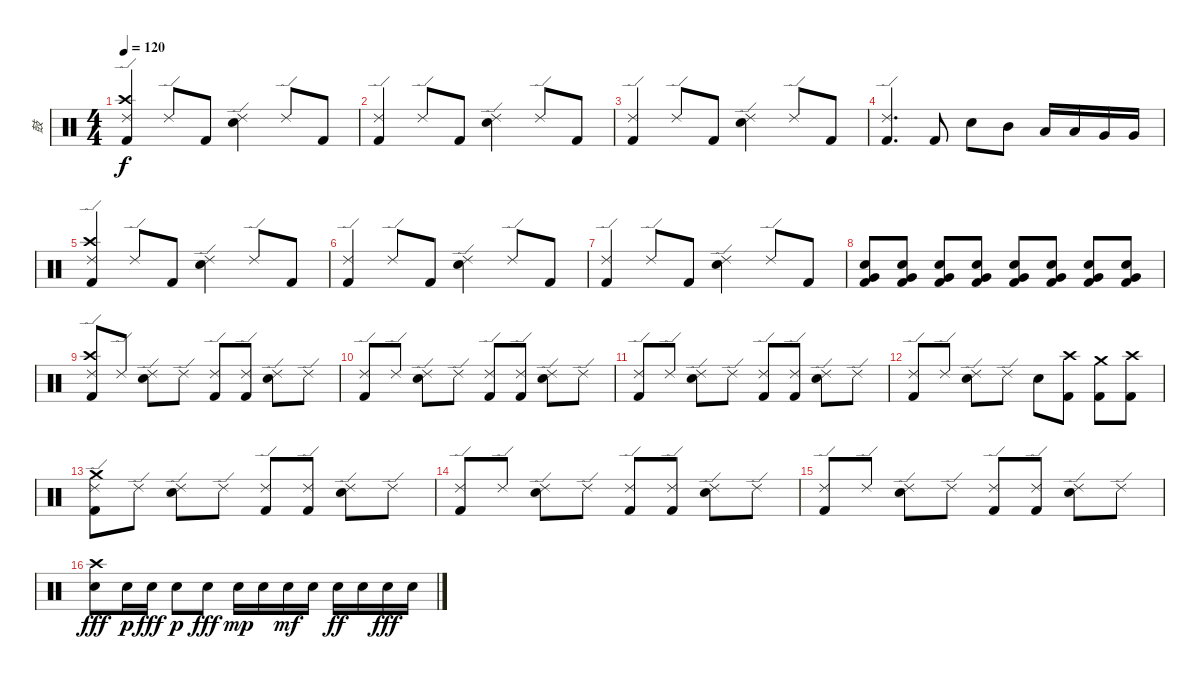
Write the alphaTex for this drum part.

\track ("鼓" "鼓") {instrument percussion}
\staff {score}
\articulation defaults
\ts (4 4)
\tempo 120
\clef neutral
\ks c
("Ride (edge) 2" "Crash high (hit)" "Kick (hit) 2").4{dy f} "Ride (edge) 2".8 "Kick (hit) 2".8 ("Ride (edge) 2" "Electric Snare (hit)").4 "Ride (edge) 2".8 "Kick (hit) 2".8 |
("Ride (edge) 2" "Kick (hit) 2").4 "Ride (edge) 2".8 "Kick (hit) 2".8 ("Ride (edge) 2" "Electric Snare (hit)").4 "Ride (edge) 2".8 "Kick (hit) 2".8 |
("Ride (edge) 2" "Kick (hit) 2").4 "Ride (edge) 2".8 "Kick (hit) 2".8 ("Ride (edge) 2" "Electric Snare (hit)").4 "Ride (edge) 2".8 "Kick (hit) 2".8 |
("Ride (edge) 2" "Kick (hit) 2").4{d} "Kick (hit) 2".8 "Electric Snare (hit)".8 "Mid Tom (hit)".8 "Low Tom (hit)".16 "Low Tom (hit)".16 "Very Low Tom (hit)".16 "Very Low Tom (hit)".16 |
("Ride (edge) 2" "Crash high (hit)" "Kick (hit) 2").4 "Ride (edge) 2".8 "Kick (hit) 2".8 ("Ride (edge) 2" "Electric Snare (hit)").4 "Ride (edge) 2".8 "Kick (hit) 2".8 |
("Ride (edge) 2" "Kick (hit) 2").4 "Ride (edge) 2".8 "Kick (hit) 2".8 ("Ride (edge) 2" "Electric Snare (hit)").4 "Ride (edge) 2".8 "Kick (hit) 2".8 |
("Ride (edge) 2" "Kick (hit) 2").4 "Ride (edge) 2".8 "Kick (hit) 2".8 ("Ride (edge) 2" "Electric Snare (hit)").4 "Ride (edge) 2".8 "Kick (hit) 2".8 |
("Very Low Tom (hit)" "Electric Snare (hit)" "Kick (hit) 2").8{volume 13} ("Very Low Tom (hit)" "Electric Snare (hit)" "Kick (hit) 2").8{volume 14} ("Very Low Tom (hit)" "Electric Snare (hit)" "Kick (hit) 2").8{volume 14} ("Very Low Tom (hit)" "Electric Snare (hit)" "Kick (hit) 2").8{volume 14} ("Very Low Tom (hit)" "Electric Snare (hit)" "Kick (hit) 2").8{volume 15} ("Very Low Tom (hit)" "Electric Snare (hit)" "Kick (hit) 2").8{volume 15} ("Very Low Tom (hit)" "Electric Snare (hit)" "Kick (hit) 2").8{volume 15} ("Very Low Tom (hit)" "Electric Snare (hit)" "Kick (hit) 2").8{volume 16} |
("Ride (edge) 2" "Crash high (hit)" "Kick (hit) 2").8{volume 13} "Ride (edge) 2".8 ("Ride (edge) 2" "Electric Snare (hit)").8 "Ride (edge) 2".8 ("Ride (edge) 2" "Kick (hit) 2").8 ("Ride (edge) 2" "Kick (hit) 2").8 ("Ride (edge) 2" "Electric Snare (hit)").8 "Ride (edge) 2".8 |
("Ride (edge) 2" "Kick (hit) 2").8 "Ride (edge) 2".8 ("Ride (edge) 2" "Electric Snare (hit)").8 "Ride (edge) 2".8 ("Ride (edge) 2" "Kick (hit) 2").8 ("Ride (edge) 2" "Kick (hit) 2").8 ("Ride (edge) 2" "Electric Snare (hit)").8 "Ride (edge) 2".8 |
("Ride (edge) 2" "Kick (hit) 2").8 "Ride (edge) 2".8 ("Ride (edge) 2" "Electric Snare (hit)").8 "Ride (edge) 2".8 ("Ride (edge) 2" "Kick (hit) 2").8 ("Ride (edge) 2" "Kick (hit) 2").8 ("Ride (edge) 2" "Electric Snare (hit)").8 "Ride (edge) 2".8 |
("Ride (edge) 2" "Kick (hit) 2").8 "Ride (edge) 2".8 ("Ride (edge) 2" "Electric Snare (hit)").8 "Ride (edge) 2".8 "Electric Snare (hit)".8 ("Crash high (hit)" "Kick (hit) 2").8 ("Crash medium (hit)" "Kick (hit) 2").8 ("Crash high (hit)" "Kick (hit) 2").8 |
("Ride (edge) 2" "Crash medium (hit)" "Kick (hit) 2").8 "Ride (edge) 2".8 ("Ride (edge) 2" "Electric Snare (hit)").8 "Ride (edge) 2".8 ("Ride (edge) 2" "Kick (hit) 2").8 ("Ride (edge) 2" "Kick (hit) 2").8 ("Ride (edge) 2" "Electric Snare (hit)").8 "Ride (edge) 2".8 |
("Ride (edge) 2" "Kick (hit) 2").8 "Ride (edge) 2".8 ("Ride (edge) 2" "Electric Snare (hit)").8 "Ride (edge) 2".8 ("Ride (edge) 2" "Kick (hit) 2").8 ("Ride (edge) 2" "Kick (hit) 2").8 ("Ride (edge) 2" "Electric Snare (hit)").8 "Ride (edge) 2".8 |
("Ride (edge) 2" "Kick (hit) 2").8 "Ride (edge) 2".8 ("Ride (edge) 2" "Electric Snare (hit)").8 "Ride (edge) 2".8 ("Ride (edge) 2" "Kick (hit) 2").8 ("Ride (edge) 2" "Kick (hit) 2").8 ("Ride (edge) 2" "Electric Snare (hit)").8 "Ride (edge) 2".8 |
("Crash high (hit)" "Electric Snare (hit)").8{dy fff} "Electric Snare (hit)".16{dy p} "Electric Snare (hit)".16{dy fff} "Electric Snare (hit)".8{dy p} "Electric Snare (hit)".8{dy fff} "Electric Snare (hit)".16{dy mp} "Electric Snare (hit)".16 "Electric Snare (hit)".16{dy mf} "Electric Snare (hit)".16 "Electric Snare (hit)".16{dy ff} "Electric Snare (hit)".16 "Electric Snare (hit)".16{dy fff} "Electric Snare (hit)".16
